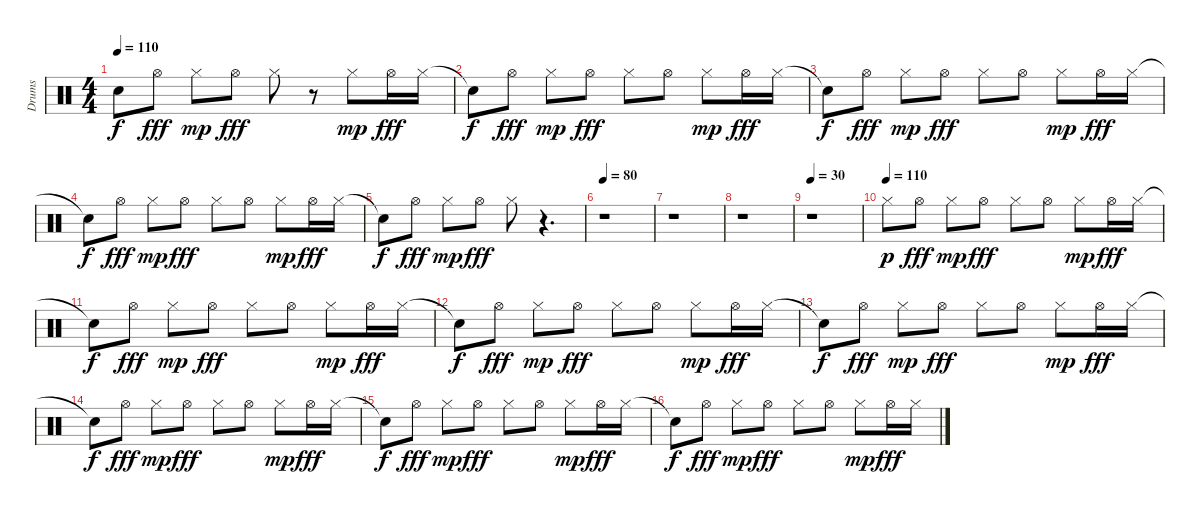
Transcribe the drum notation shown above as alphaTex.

\track ("Drums" "Drums") {instrument percussion}
\staff {score}
\articulation defaults
\ts (4 4)
\tempo 110
\clef neutral
\ks c "Snare (hit)"{t}.8{dy f} "Hi-Hat (open)".8{dy fff} "Hi-Hat (closed)".8{dy mp} "Hi-Hat (open)".8{dy fff} "Hi-Hat (closed)".8
r.8 "Hi-Hat (closed)".8{dy mp} "Hi-Hat (open)".16{dy fff} "Hi-Hat (closed)".16 |
"Snare (hit)"{t}.8{dy f} "Hi-Hat (open)".8{dy fff} "Hi-Hat (closed)".8{dy mp} "Hi-Hat (open)".8{dy fff} "Hi-Hat (closed)".8 "Hi-Hat (open)".8 "Hi-Hat (closed)".8{dy mp} "Hi-Hat (open)".16{dy fff} "Hi-Hat (closed)".16 |
"Snare (hit)"{t}.8{dy f} "Hi-Hat (open)".8{dy fff} "Hi-Hat (closed)".8{dy mp} "Hi-Hat (open)".8{dy fff} "Hi-Hat (closed)".8 "Hi-Hat (open)".8 "Hi-Hat (closed)".8{dy mp} "Hi-Hat (open)".16{dy fff} "Hi-Hat (closed)".16 |
"Snare (hit)"{t}.8{dy f} "Hi-Hat (open)".8{dy fff} "Hi-Hat (closed)".8{dy mp} "Hi-Hat (open)".8{dy fff} "Hi-Hat (closed)".8 "Hi-Hat (open)".8 "Hi-Hat (closed)".8{dy mp} "Hi-Hat (open)".16{dy fff} "Hi-Hat (closed)".16 |
"Snare (hit)"{t}.8{dy f} "Hi-Hat (open)".8{dy fff} "Hi-Hat (closed)".8{dy mp} "Hi-Hat (open)".8{dy fff} "Hi-Hat (closed)".8 r.4{d} |
\tempo 80
r.1 |
r.1 |
r.1 |
\tempo 30
r.1 |
\tempo (110)
"Hi-Hat (closed)".8{dy p} "Hi-Hat (open)".8{dy fff} "Hi-Hat (closed)".8{dy mp} "Hi-Hat (open)".8{dy fff} "Hi-Hat (closed)".8 "Hi-Hat (open)".8 "Hi-Hat (closed)".8{dy mp} "Hi-Hat (open)".16{dy fff} "Hi-Hat (closed)".16 |
"Snare (hit)"{t}.8{dy f} "Hi-Hat (open)".8{dy fff} "Hi-Hat (closed)".8{dy mp} "Hi-Hat (open)".8{dy fff} "Hi-Hat (closed)".8 "Hi-Hat (open)".8 "Hi-Hat (closed)".8{dy mp} "Hi-Hat (open)".16{dy fff} "Hi-Hat (closed)".16 |
"Snare (hit)"{t}.8{dy f} "Hi-Hat (open)".8{dy fff} "Hi-Hat (closed)".8{dy mp} "Hi-Hat (open)".8{dy fff} "Hi-Hat (closed)".8 "Hi-Hat (open)".8 "Hi-Hat (closed)".8{dy mp} "Hi-Hat (open)".16{dy fff} "Hi-Hat (closed)".16 |
"Snare (hit)"{t}.8{dy f} "Hi-Hat (open)".8{dy fff} "Hi-Hat (closed)".8{dy mp} "Hi-Hat (open)".8{dy fff} "Hi-Hat (closed)".8 "Hi-Hat (open)".8 "Hi-Hat (closed)".8{dy mp} "Hi-Hat (open)".16{dy fff} "Hi-Hat (closed)".16 |
"Snare (hit)"{t}.8{dy f} "Hi-Hat (open)".8{dy fff} "Hi-Hat (closed)".8{dy mp} "Hi-Hat (open)".8{dy fff} "Hi-Hat (closed)".8 "Hi-Hat (open)".8 "Hi-Hat (closed)".8{dy mp} "Hi-Hat (open)".16{dy fff} "Hi-Hat (closed)".16 |
"Snare (hit)"{t}.8{dy f} "Hi-Hat (open)".8{dy fff} "Hi-Hat (closed)".8{dy mp} "Hi-Hat (open)".8{dy fff} "Hi-Hat (closed)".8 "Hi-Hat (open)".8 "Hi-Hat (closed)".8{dy mp} "Hi-Hat (open)".16{dy fff} "Hi-Hat (closed)".16 |
"Snare (hit)"{t}.8{dy f} "Hi-Hat (open)".8{dy fff} "Hi-Hat (closed)".8{dy mp} "Hi-Hat (open)".8{dy fff} "Hi-Hat (closed)".8 "Hi-Hat (open)".8 "Hi-Hat (closed)".8{dy mp} "Hi-Hat (open)".16{dy fff} "Hi-Hat (closed)".16
